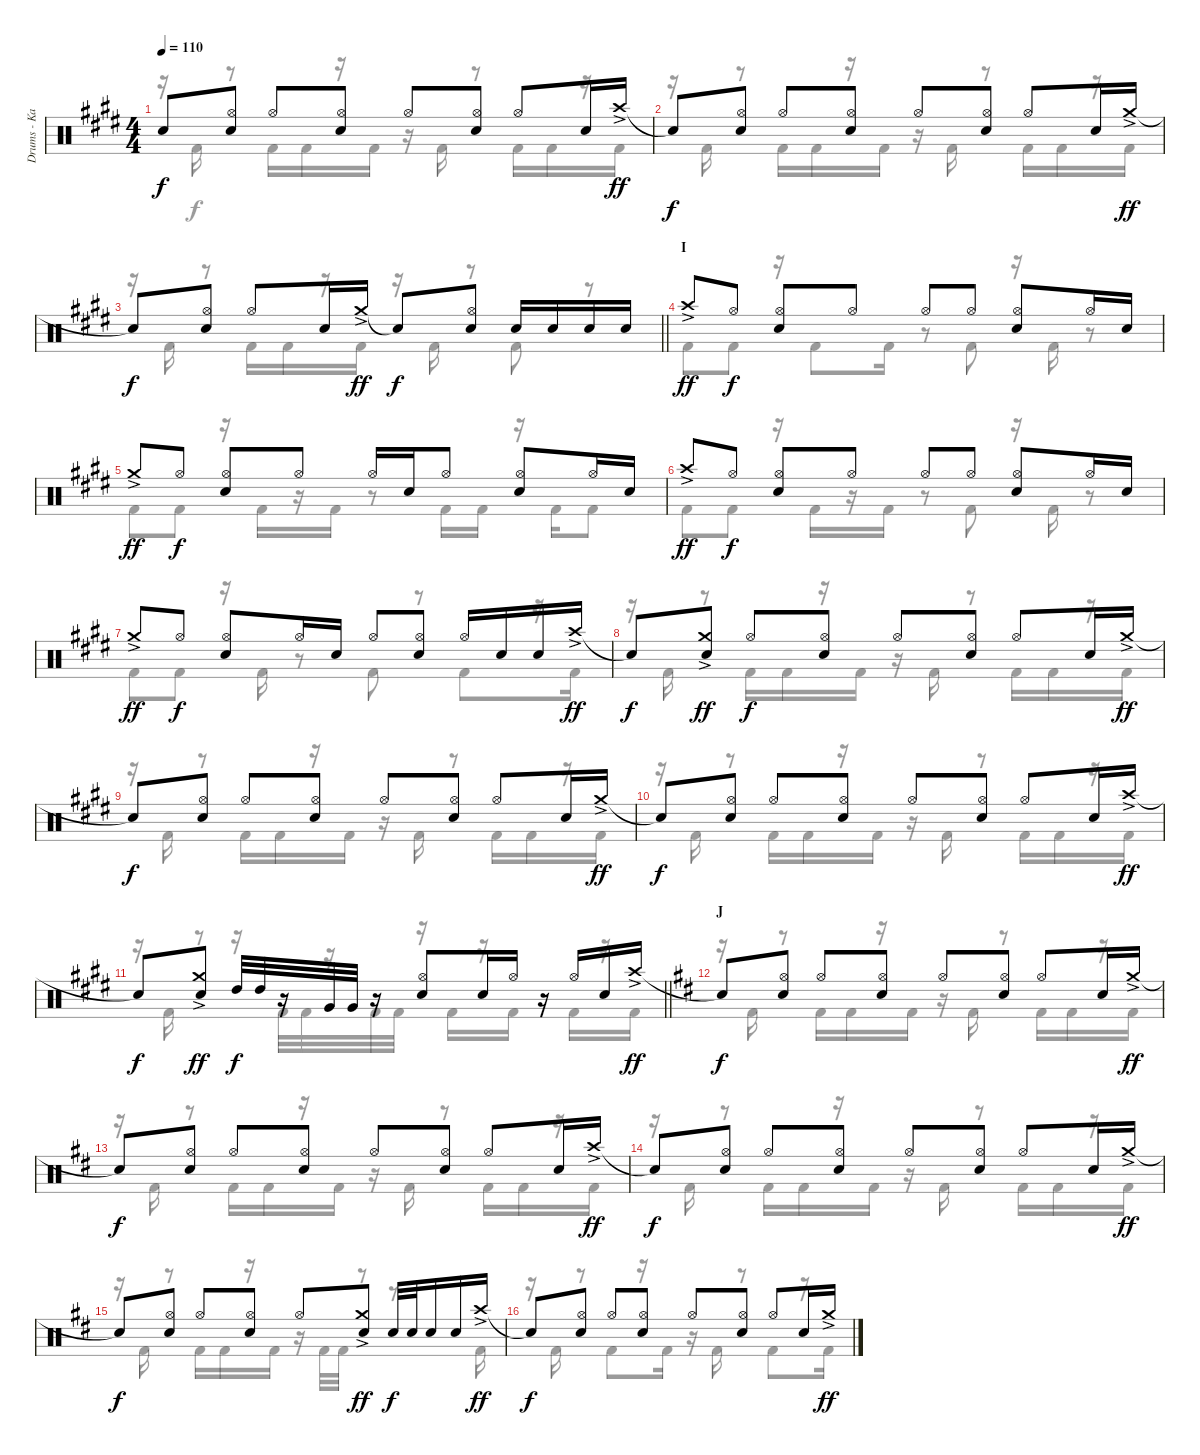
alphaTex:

\track ("Drums - Kai" "Drums - Ka") {instrument percussion}
\staff {score}
\articulation defaults
\voice
\ts (4 4)
\tempo 110
\clef neutral
\ks e "Snare (hit)"{t}.8{dy f}
("Hi-Hat (open)" "Snare (hit) 2").8 "Hi-Hat (open)".8 ("Hi-Hat (open)" "Snare (hit) 2").8 "Hi-Hat (open)".8 ("Hi-Hat (open)" "Snare (hit) 2").8 "Hi-Hat (open)".8 "Snare (hit) 2".16 "Crash high (hit)"{ac}.16{dy ff} |
"Snare (hit)"{t}.8{dy f} ("Hi-Hat (open)" "Snare (hit) 2").8 "Hi-Hat (open)".8 ("Hi-Hat (open)" "Snare (hit) 2").8 "Hi-Hat (open)".8 ("Hi-Hat (open)" "Snare (hit) 2").8 "Hi-Hat (open)".8 "Snare (hit) 2".16 "Crash medium (hit)"{ac}.16{dy ff} |
\barLineRight lightlight "Snare (hit)"{t}.8{dy f}
("Hi-Hat (open)" "Snare (hit) 2").8 "Hi-Hat (open)".8 "Snare (hit) 2".16 "Crash medium (hit)"{ac}.16{dy ff} "Snare (hit)"{t}.8{dy f} ("Hi-Hat (open)" "Snare (hit) 2").8 "Snare (hit) 2".16 "Snare (hit) 2".16 "Snare (hit) 2".16 "Snare (hit) 2".16 |
\section ("" "I")
"Crash high (hit)"{ac}.8{dy ff} "Hi-Hat (open)".8{dy f} ("Hi-Hat (open)" "Snare (hit) 2").8 "Hi-Hat (open)".8 "Hi-Hat (open)".8 "Hi-Hat (open)".8 ("Hi-Hat (open)" "Snare (hit) 2").8 "Hi-Hat (open)".16 "Snare (hit) 2".16 |
"Crash medium (hit)"{ac}.8{dy ff} "Hi-Hat (open)".8{dy f} ("Hi-Hat (open)" "Snare (hit) 2").8 "Hi-Hat (open)".8 "Hi-Hat (open)".16 "Snare (hit) 2".16 "Hi-Hat (open)".8 ("Hi-Hat (open)" "Snare (hit) 2").8 "Hi-Hat (open)".16 "Snare (hit) 2".16 |
"Crash high (hit)"{ac}.8{dy ff} "Hi-Hat (open)".8{dy f} ("Hi-Hat (open)" "Snare (hit) 2").8 "Hi-Hat (open)".8 "Hi-Hat (open)".8 "Hi-Hat (open)".8 ("Hi-Hat (open)" "Snare (hit) 2").8 "Hi-Hat (open)".16 "Snare (hit) 2".16 |
"Crash medium (hit)"{ac}.8{dy ff} "Hi-Hat (open)".8{dy f} ("Hi-Hat (open)" "Snare (hit) 2").8 "Hi-Hat (open)".16 "Snare (hit) 2".16 "Hi-Hat (open)".8 ("Hi-Hat (open)" "Snare (hit) 2").8 "Hi-Hat (open)".16 "Snare (hit) 2".16 "Snare (hit) 2".16 "Crash high (hit)"{ac}.16{dy ff} |
"Snare (hit)"{t}.8{dy f} ("Crash medium (hit)"{ac} "Snare (hit) 2").8{dy ff} "Hi-Hat (open)".8{dy f} ("Hi-Hat (open)" "Snare (hit) 2").8 "Hi-Hat (open)".8 ("Hi-Hat (open)" "Snare (hit) 2").8 "Hi-Hat (open)".8 "Snare (hit) 2".16 "Crash medium (hit)"{ac}.16{dy ff} |
"Snare (hit)"{t}.8{dy f} ("Hi-Hat (open)" "Snare (hit) 2").8 "Hi-Hat (open)".8 ("Hi-Hat (open)" "Snare (hit) 2").8 "Hi-Hat (open)".8 ("Hi-Hat (open)" "Snare (hit) 2").8 "Hi-Hat (open)".8 "Snare (hit) 2".16 "Crash medium (hit)"{ac}.16{dy ff} |
"Snare (hit)"{t}.8{dy f} ("Hi-Hat (open)" "Snare (hit) 2").8 "Hi-Hat (open)".8 ("Hi-Hat (open)" "Snare (hit) 2").8 "Hi-Hat (open)".8 ("Hi-Hat (open)" "Snare (hit) 2").8 "Hi-Hat (open)".8 "Snare (hit) 2".16 "Crash high (hit)"{ac}.16{dy ff} |
\barLineRight lightlight "Snare (hit)"{t}.8{dy f}
("Crash medium (hit)"{ac} "Snare (hit) 2").8{dy ff} "High Tom (hit)".32{dy f} "High Tom (hit)".32 r.16 "Very Low Tom (hit)".32 "Very Low Tom (hit)".32 r.16 ("Hi-Hat (open)" "Snare (hit) 2").8 "Snare (hit) 2".16 "Hi-Hat (open)".16 r.16 "Hi-Hat (open)".16 "Snare (hit) 2".16 "Crash high (hit)"{ac}.16{dy ff} |
\section ("" "J")
\ks d "Snare (hit)"{t}.8{dy f}
("Hi-Hat (open)" "Snare (hit) 2").8 "Hi-Hat (open)".8 ("Hi-Hat (open)" "Snare (hit) 2").8 "Hi-Hat (open)".8 ("Hi-Hat (open)" "Snare (hit) 2").8 "Hi-Hat (open)".8 "Snare (hit) 2".16 "Crash medium (hit)"{ac}.16{dy ff} |
"Snare (hit)"{t}.8{dy f} ("Hi-Hat (open)" "Snare (hit) 2").8 "Hi-Hat (open)".8 ("Hi-Hat (open)" "Snare (hit) 2").8 "Hi-Hat (open)".8 ("Hi-Hat (open)" "Snare (hit) 2").8 "Hi-Hat (open)".8 "Snare (hit) 2".16 "Crash high (hit)"{ac}.16{dy ff} |
"Snare (hit)"{t}.8{dy f} ("Hi-Hat (open)" "Snare (hit) 2").8 "Hi-Hat (open)".8 ("Hi-Hat (open)" "Snare (hit) 2").8 "Hi-Hat (open)".8 ("Hi-Hat (open)" "Snare (hit) 2").8 "Hi-Hat (open)".8 "Snare (hit) 2".16 "Crash medium (hit)"{ac}.16{dy ff} |
"Snare (hit)"{t}.8{dy f} ("Hi-Hat (open)" "Snare (hit) 2").8 "Hi-Hat (open)".8 ("Hi-Hat (open)" "Snare (hit) 2").8 "Hi-Hat (open)".8 ("Crash medium (hit)"{ac} "Snare (hit) 2").8{dy ff} "Snare (hit) 2".32{dy f} "Snare (hit) 2".32 "Snare (hit) 2".16 "Snare (hit) 2".16 "Crash high (hit)"{ac}.16{dy ff} |
"Snare (hit)"{t}.8{dy f} ("Hi-Hat (open)" "Snare (hit) 2").8 "Hi-Hat (open)".8 ("Hi-Hat (open)" "Snare (hit) 2").8 "Hi-Hat (open)".8 ("Hi-Hat (open)" "Snare (hit) 2").8 "Hi-Hat (open)".8 "Snare (hit) 2".16 "Crash medium (hit)"{ac}.16{dy ff}
\voice
\clef neutral
\ottava regular
\simile none
\ks e
r.16{dy f} "Kick (hit) 2".16 r.8 "Kick (hit) 2".16 "Kick (hit) 2".16 r.16 "Kick (hit) 2".16 r.16 "Kick (hit) 2".16 r.8 "Kick (hit) 2".16 "Kick (hit) 2".16 r.16 "Kick (hit) 2".16 |
r.16 "Kick (hit) 2".16 r.8 "Kick (hit) 2".16 "Kick (hit) 2".16 r.16 "Kick (hit) 2".16 r.16 "Kick (hit) 2".16 r.8 "Kick (hit) 2".16 "Kick (hit) 2".16 r.16 "Kick (hit) 2".16 |
\barLineRight lightlight
r.16 "Kick (hit) 2".16 r.8 "Kick (hit) 2".16 "Kick (hit) 2".16 r.16 "Kick (hit) 2".16 r.16 "Kick (hit) 2".16 r.8 "Kick (hit) 2".8 r.8 |
"Kick (hit) 2".8 "Kick (hit) 2".8 r.16 "Kick (hit) 2".8 "Kick (hit) 2".16 r.8 "Kick (hit) 2".8 r.16 "Kick (hit) 2".16 r.8 |
"Kick (hit) 2".8 "Kick (hit) 2".8 r.16 "Kick (hit) 2".16 r.16 "Kick (hit) 2".16 r.8 "Kick (hit) 2".16 "Kick (hit) 2".16 r.16 "Kick (hit) 2".16 "Kick (hit) 2".8 |
"Kick (hit) 2".8 "Kick (hit) 2".8 r.16 "Kick (hit) 2".16 r.16 "Kick (hit) 2".16 r.8 "Kick (hit) 2".8 r.16 "Kick (hit) 2".16 r.8 |
"Kick (hit) 2".8 "Kick (hit) 2".8 r.16 "Kick (hit) 2".16 r.8 "Kick (hit) 2".8 r.8 "Kick (hit) 2".8 r.16 "Kick (hit) 2".16 |
r.16 "Kick (hit) 2".16 r.8 "Kick (hit) 2".16 "Kick (hit) 2".16 r.16 "Kick (hit) 2".16 r.16 "Kick (hit) 2".16 r.8 "Kick (hit) 2".16 "Kick (hit) 2".16 r.16 "Kick (hit) 2".16 |
r.16 "Kick (hit) 2".16 r.8 "Kick (hit) 2".16 "Kick (hit) 2".16 r.16 "Kick (hit) 2".16 r.16 "Kick (hit) 2".16 r.8 "Kick (hit) 2".16 "Kick (hit) 2".16 r.16 "Kick (hit) 2".16 |
r.16 "Kick (hit) 2".16 r.8 "Kick (hit) 2".16 "Kick (hit) 2".16 r.16 "Kick (hit) 2".16 r.16 "Kick (hit) 2".16 r.8 "Kick (hit) 2".16 "Kick (hit) 2".16 r.16 "Kick (hit) 2".16 |
\barLineRight lightlight
r.16 "Kick (hit) 2".16 r.8 r.16 "Kick (hit) 2".32 "Kick (hit) 2".32 r.16 "Kick (hit) 2".32 "Kick (hit) 2".32 r.16 "Kick (hit) 2".16 r.16 "Kick (hit) 2".16 r.16 "Kick (hit) 2".16 r.16 "Kick (hit) 2".16 |
\ks d
r.16 "Kick (hit) 2".16 r.8 "Kick (hit) 2".16 "Kick (hit) 2".16 r.16 "Kick (hit) 2".16 r.16 "Kick (hit) 2".16 r.8 "Kick (hit) 2".16 "Kick (hit) 2".16 r.16 "Kick (hit) 2".16 |
r.16 "Kick (hit) 2".16 r.8 "Kick (hit) 2".16 "Kick (hit) 2".16 r.16 "Kick (hit) 2".16 r.16 "Kick (hit) 2".16 r.8 "Kick (hit) 2".16 "Kick (hit) 2".16 r.16 "Kick (hit) 2".16 |
r.16 "Kick (hit) 2".16 r.8 "Kick (hit) 2".16 "Kick (hit) 2".16 r.16 "Kick (hit) 2".16 r.16 "Kick (hit) 2".16 r.8 "Kick (hit) 2".16 "Kick (hit) 2".16 r.16 "Kick (hit) 2".16 |
r.16 "Kick (hit) 2".16 r.8 "Kick (hit) 2".16 "Kick (hit) 2".16 r.16 "Kick (hit) 2".16 r.16 "Kick (hit) 2".32 "Kick (hit) 2".32 r.8 r.8{d} "Kick (hit) 2".16 |
r.16 "Kick (hit) 2".16 r.8 "Kick (hit) 2".8 r.16 "Kick (hit) 2".16 r.16 "Kick (hit) 2".16 r.8 "Kick (hit) 2".8 r.16 "Kick (hit) 2".16
